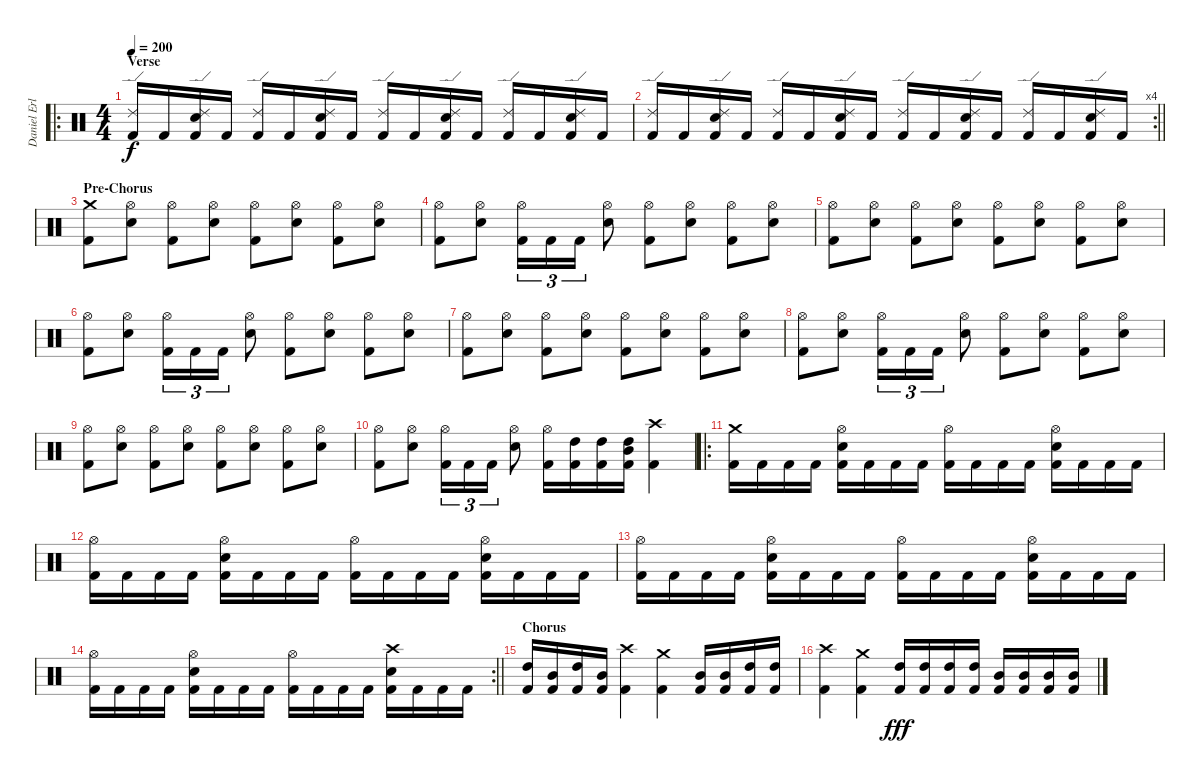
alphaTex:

\track ("Daniel Erlandsson" "Daniel Erl") {instrument percussion}
\staff {score}
\articulation defaults
\ro
\ts (4 4)
\section ("" "Verse")
\tempo 200
\clef neutral
\ks c
("Kick (hit) 2" "Ride (edge) 2").16{dy f} "Kick (hit) 2".16 ("Kick (hit) 2" "Snare (hit) 2" "Ride (edge) 2").16 "Kick (hit) 2".16 ("Kick (hit) 2" "Ride (edge) 2").16 "Kick (hit) 2".16 ("Kick (hit) 2" "Snare (hit) 2" "Ride (edge) 2").16 "Kick (hit) 2".16 ("Kick (hit) 2" "Ride (edge) 2").16 "Kick (hit) 2".16 ("Kick (hit) 2" "Snare (hit) 2" "Ride (edge) 2").16 "Kick (hit) 2".16 ("Kick (hit) 2" "Ride (edge) 2").16 "Kick (hit) 2".16 ("Kick (hit) 2" "Snare (hit) 2" "Ride (edge) 2").16 "Kick (hit) 2".16 |
\rc 4
\barLineRight lightlight
("Kick (hit) 2" "Ride (edge) 2").16 "Kick (hit) 2".16 ("Kick (hit) 2" "Snare (hit) 2" "Ride (edge) 2").16 "Kick (hit) 2".16 ("Kick (hit) 2" "Ride (edge) 2").16 "Kick (hit) 2".16 ("Kick (hit) 2" "Snare (hit) 2" "Ride (edge) 2").16 "Kick (hit) 2".16 ("Kick (hit) 2" "Ride (edge) 2").16 "Kick (hit) 2".16 ("Kick (hit) 2" "Snare (hit) 2" "Ride (edge) 2").16 "Kick (hit) 2".16 ("Kick (hit) 2" "Ride (edge) 2").16 "Kick (hit) 2".16 ("Kick (hit) 2" "Snare (hit) 2" "Ride (edge) 2").16 "Kick (hit) 2".16 |
\section ("" "Pre-Chorus")
("Kick (hit) 2" "Crash medium (hit)").8 ("Snare (hit) 2" "Hi-Hat (open)").8 ("Kick (hit) 2" "Hi-Hat (open)").8 ("Snare (hit) 2" "Hi-Hat (open)").8 ("Kick (hit) 2" "Hi-Hat (open)").8 ("Snare (hit) 2" "Hi-Hat (open)").8 ("Kick (hit) 2" "Hi-Hat (open)").8 ("Snare (hit) 2" "Hi-Hat (open)").8 |
("Kick (hit) 2" "Hi-Hat (open)").8 ("Snare (hit) 2" "Hi-Hat (open)").8 ("Kick (hit) 2" "Hi-Hat (open)").16{tu (3 2)} "Kick (hit) 2".16{tu (3 2)} "Kick (hit) 2".16{tu (3 2)} ("Snare (hit) 2" "Hi-Hat (open)").8 ("Kick (hit) 2" "Hi-Hat (open)").8 ("Snare (hit) 2" "Hi-Hat (open)").8 ("Kick (hit) 2" "Hi-Hat (open)").8 ("Snare (hit) 2" "Hi-Hat (open)").8 |
("Kick (hit) 2" "Hi-Hat (open)").8 ("Snare (hit) 2" "Hi-Hat (open)").8 ("Kick (hit) 2" "Hi-Hat (open)").8 ("Snare (hit) 2" "Hi-Hat (open)").8 ("Kick (hit) 2" "Hi-Hat (open)").8 ("Snare (hit) 2" "Hi-Hat (open)").8 ("Kick (hit) 2" "Hi-Hat (open)").8 ("Snare (hit) 2" "Hi-Hat (open)").8 |
("Kick (hit) 2" "Hi-Hat (open)").8 ("Snare (hit) 2" "Hi-Hat (open)").8 ("Kick (hit) 2" "Hi-Hat (open)").16{tu (3 2)} "Kick (hit) 2".16{tu (3 2)} "Kick (hit) 2".16{tu (3 2)} ("Snare (hit) 2" "Hi-Hat (open)").8 ("Kick (hit) 2" "Hi-Hat (open)").8 ("Snare (hit) 2" "Hi-Hat (open)").8 ("Kick (hit) 2" "Hi-Hat (open)").8 ("Snare (hit) 2" "Hi-Hat (open)").8 |
("Kick (hit) 2" "Hi-Hat (open)").8 ("Snare (hit) 2" "Hi-Hat (open)").8 ("Kick (hit) 2" "Hi-Hat (open)").8 ("Snare (hit) 2" "Hi-Hat (open)").8 ("Kick (hit) 2" "Hi-Hat (open)").8 ("Snare (hit) 2" "Hi-Hat (open)").8 ("Kick (hit) 2" "Hi-Hat (open)").8 ("Snare (hit) 2" "Hi-Hat (open)").8 |
("Kick (hit) 2" "Hi-Hat (open)").8 ("Snare (hit) 2" "Hi-Hat (open)").8 ("Kick (hit) 2" "Hi-Hat (open)").16{tu (3 2)} "Kick (hit) 2".16{tu (3 2)} "Kick (hit) 2".16{tu (3 2)} ("Snare (hit) 2" "Hi-Hat (open)").8 ("Kick (hit) 2" "Hi-Hat (open)").8 ("Snare (hit) 2" "Hi-Hat (open)").8 ("Kick (hit) 2" "Hi-Hat (open)").8 ("Snare (hit) 2" "Hi-Hat (open)").8 |
("Kick (hit) 2" "Hi-Hat (open)").8 ("Snare (hit) 2" "Hi-Hat (open)").8 ("Kick (hit) 2" "Hi-Hat (open)").8 ("Snare (hit) 2" "Hi-Hat (open)").8 ("Kick (hit) 2" "Hi-Hat (open)").8 ("Snare (hit) 2" "Hi-Hat (open)").8 ("Kick (hit) 2" "Hi-Hat (open)").8 ("Snare (hit) 2" "Hi-Hat (open)").8 |
("Kick (hit) 2" "Hi-Hat (open)").8 ("Snare (hit) 2" "Hi-Hat (open)").8 ("Kick (hit) 2" "Hi-Hat (open)").16{tu (3 2)} "Kick (hit) 2".16{tu (3 2)} "Kick (hit) 2".16{tu (3 2)} ("Snare (hit) 2" "Hi-Hat (open)").8 ("Kick (hit) 2" "Hi-Hat (open)").16 ("Kick (hit) 2" "High Tom (hit)").16 ("Kick (hit) 2" "High Tom (hit)").16 ("Kick (hit) 2" "High Tom (hit)" "Mid Tom (hit)").16 ("Kick (hit) 2" "Crash high (hit)").4 |
\ro
("Kick (hit) 2" "Crash medium (hit)").16 "Kick (hit) 2".16 "Kick (hit) 2".16 "Kick (hit) 2".16 ("Kick (hit) 2" "Snare (hit) 2" "Hi-Hat (open)").16 "Kick (hit) 2".16 "Kick (hit) 2".16 "Kick (hit) 2".16 ("Kick (hit) 2" "Hi-Hat (open)").16 "Kick (hit) 2".16 "Kick (hit) 2".16 "Kick (hit) 2".16 ("Kick (hit) 2" "Snare (hit) 2" "Hi-Hat (open)").16 "Kick (hit) 2".16 "Kick (hit) 2".16 "Kick (hit) 2".16 |
("Kick (hit) 2" "Hi-Hat (open)").16 "Kick (hit) 2".16 "Kick (hit) 2".16 "Kick (hit) 2".16 ("Kick (hit) 2" "Snare (hit) 2" "Hi-Hat (open)").16 "Kick (hit) 2".16 "Kick (hit) 2".16 "Kick (hit) 2".16 ("Kick (hit) 2" "Hi-Hat (open)").16 "Kick (hit) 2".16 "Kick (hit) 2".16 "Kick (hit) 2".16 ("Kick (hit) 2" "Snare (hit) 2" "Hi-Hat (open)").16 "Kick (hit) 2".16 "Kick (hit) 2".16 "Kick (hit) 2".16 |
("Kick (hit) 2" "Hi-Hat (open)").16 "Kick (hit) 2".16 "Kick (hit) 2".16 "Kick (hit) 2".16 ("Kick (hit) 2" "Snare (hit) 2" "Hi-Hat (open)").16 "Kick (hit) 2".16 "Kick (hit) 2".16 "Kick (hit) 2".16 ("Kick (hit) 2" "Hi-Hat (open)").16 "Kick (hit) 2".16 "Kick (hit) 2".16 "Kick (hit) 2".16 ("Kick (hit) 2" "Snare (hit) 2" "Hi-Hat (open)").16 "Kick (hit) 2".16 "Kick (hit) 2".16 "Kick (hit) 2".16 |
\rc 2
\barLineRight lightlight
("Kick (hit) 2" "Hi-Hat (open)").16 "Kick (hit) 2".16 "Kick (hit) 2".16 "Kick (hit) 2".16 ("Kick (hit) 2" "Snare (hit) 2" "Hi-Hat (open)").16 "Kick (hit) 2".16 "Kick (hit) 2".16 "Kick (hit) 2".16 ("Kick (hit) 2" "Hi-Hat (open)").16 "Kick (hit) 2".16 "Kick (hit) 2".16 "Kick (hit) 2".16 ("Kick (hit) 2" "Snare (hit) 2" "Crash high (hit)").16 "Kick (hit) 2".16 "Kick (hit) 2".16 "Kick (hit) 2".16 |
\section ("" "Chorus")
("Kick (hit) 2" "High Tom (hit)").16 ("Kick (hit) 2" "Mid Tom (hit)").16 ("Kick (hit) 2" "High Tom (hit)").16 ("Kick (hit) 2" "Mid Tom (hit)").16 ("Kick (hit) 2" "Crash high (hit)").4 ("Kick (hit) 2" "Crash medium (hit)").4 ("Kick (hit) 2" "Mid Tom (hit)").16 ("Kick (hit) 2" "Mid Tom (hit)").16 ("Kick (hit) 2" "High Tom (hit)").16 ("Kick (hit) 2" "High Tom (hit)").16 |
("Kick (hit) 2" "Crash high (hit)").4 ("Kick (hit) 2" "Crash medium (hit)").4 ("Kick (hit) 2" "High Tom (hit)").16{dy fff} ("Kick (hit) 2" "High Tom (hit)").16 ("Kick (hit) 2" "High Tom (hit)").16 ("Kick (hit) 2" "High Tom (hit)").16 ("Kick (hit) 2" "Mid Tom (hit)").16 ("Kick (hit) 2" "Mid Tom (hit)").16 ("Kick (hit) 2" "Mid Tom (hit)").16 ("Kick (hit) 2" "Mid Tom (hit)").16
